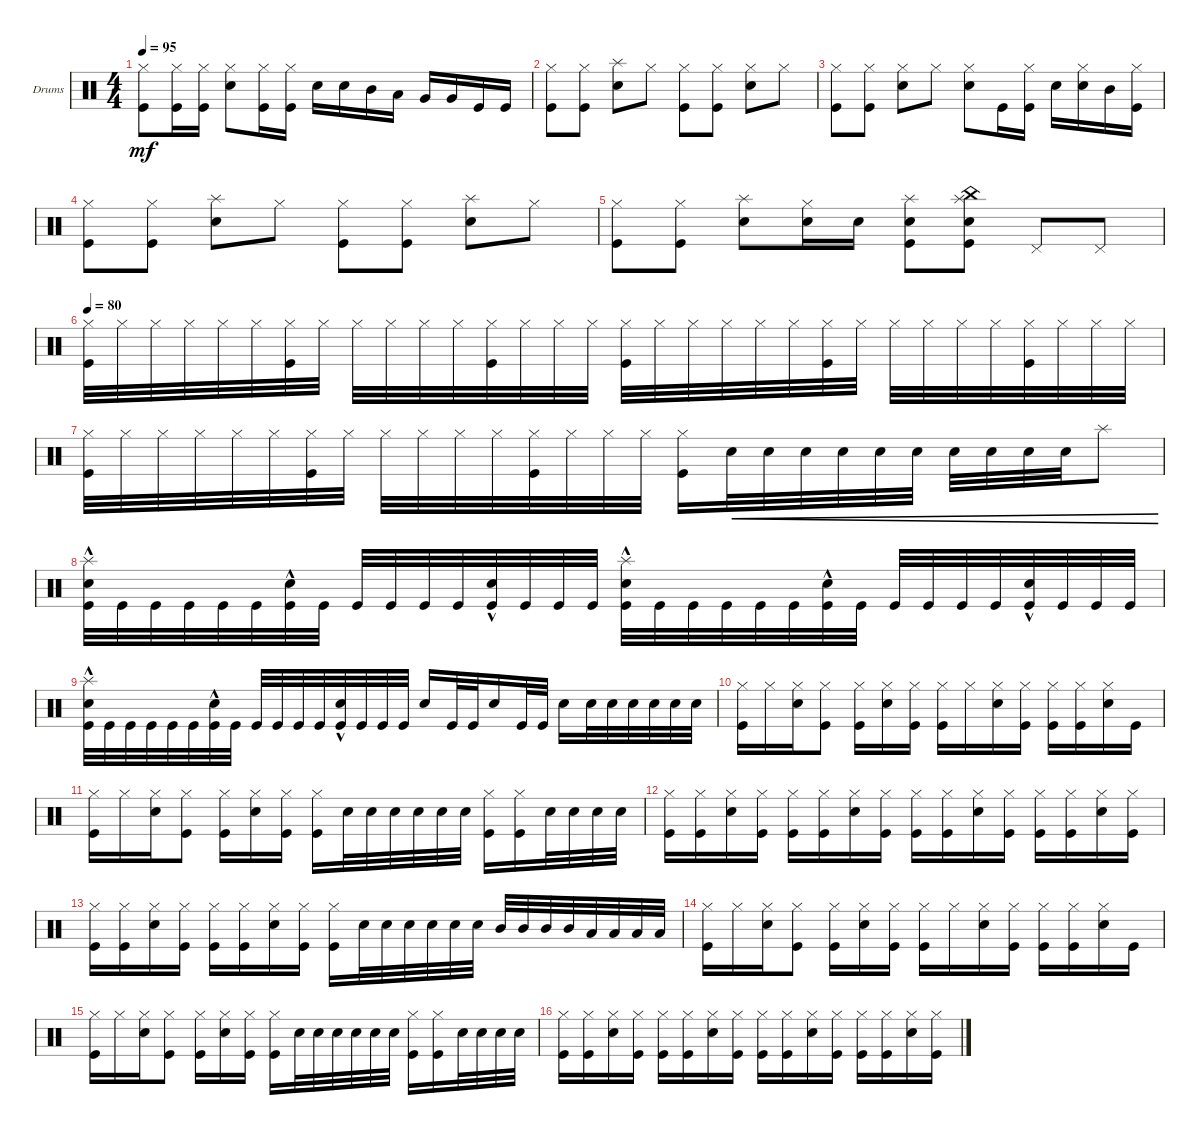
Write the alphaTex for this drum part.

\defaultSystemsLayout 4
\bracketExtendMode groupsimilarinstruments
\firstSystemTrackNameOrientation horizontal
\otherSystemsTrackNameOrientation horizontal
\track ("Drumkit" "Drums") {instrument percussion}
\staff {score}
\articulation defaults
\ts (4 4)
\tempo 95
\clef neutral
\ks c
("Kick (hit)" "Hi-Hat (closed)").8{dy mf} ("Kick (hit)" "Hi-Hat (closed)").16 ("Kick (hit)" "Hi-Hat (closed)").16 ("Snare (hit) 2" "Hi-Hat (closed)").8 ("Kick (hit)" "Hi-Hat (closed)").16 ("Kick (hit)" "Hi-Hat (closed)").16 "Snare (hit) 2".16 "Snare (hit) 2".16 "Mid Tom (hit)".16 "Low Tom (hit)".16 "Very Low Tom (hit)".16 "Very Low Tom (hit)".16 "Kick (hit)".16 "Kick (hit)".16 |
("Kick (hit)" "Hi-Hat (closed)").8 ("Hi-Hat (closed)" "Kick (hit)").8 ("Snare (hit) 2" "Splash (hit)").8 "Hi-Hat (closed)".8 ("Hi-Hat (closed)" "Kick (hit)").8 ("Hi-Hat (closed)" "Kick (hit)").8 ("Hi-Hat (closed)" "Snare (hit) 2").8 "Hi-Hat (closed)".8 |
("Hi-Hat (closed)" "Kick (hit)").8 ("Hi-Hat (closed)" "Kick (hit)").8 ("Snare (hit) 2" "Hi-Hat (closed)").8 "Hi-Hat (closed)".8 ("Snare (hit) 2" "Hi-Hat (closed)").8 "Kick (hit)".16 ("Kick (hit)" "Hi-Hat (closed)").16 "Snare (hit) 2".16 ("Snare (hit) 2" "Hi-Hat (closed)").16 "Mid Tom (hit)".16 ("Kick (hit)" "Hi-Hat (closed)").16 |
("Kick (hit)" "Hi-Hat (closed)").8 ("Hi-Hat (closed)" "Kick (hit)").8 ("Snare (hit) 2" "Splash (hit)").8 "Hi-Hat (closed)".8 ("Hi-Hat (closed)" "Kick (hit)").8 ("Hi-Hat (closed)" "Kick (hit)").8 ("Snare (hit) 2" "Splash (hit)").8 "Hi-Hat (closed)".8 |
("Hi-Hat (closed)" "Kick (hit)").8 ("Hi-Hat (closed)" "Kick (hit)").8 ("Snare (hit) 2" "Splash (hit)").8 ("Hi-Hat (closed)" "Snare (hit) 2").16 "Snare (hit) 2".16 ("Snare (hit) 2" "Splash (hit)" "Kick (hit)").8 ("Snare (hit) 2" "Splash (hit)" "China (hit)" "Kick (hit)").8 "Pedal Hi-Hat (hit)".8 "Pedal Hi-Hat (hit)".8 |
\tempo 80
("Hi-Hat (closed)" "Kick (hit)").32 "Hi-Hat (closed)".32 "Hi-Hat (closed)".32 "Hi-Hat (closed)".32 "Hi-Hat (closed)".32 "Hi-Hat (closed)".32 ("Hi-Hat (closed)" "Kick (hit)").32 "Hi-Hat (closed)".32 "Hi-Hat (closed)".32 "Hi-Hat (closed)".32 "Hi-Hat (closed)".32 "Hi-Hat (closed)".32 ("Hi-Hat (closed)" "Kick (hit)").32 "Hi-Hat (closed)".32 "Hi-Hat (closed)".32 "Hi-Hat (closed)".32 ("Hi-Hat (closed)" "Kick (hit)").32 "Hi-Hat (closed)".32 "Hi-Hat (closed)".32 "Hi-Hat (closed)".32 "Hi-Hat (closed)".32 "Hi-Hat (closed)".32 ("Hi-Hat (closed)" "Kick (hit)").32 "Hi-Hat (closed)".32 "Hi-Hat (closed)".32 "Hi-Hat (closed)".32 "Hi-Hat (closed)".32 "Hi-Hat (closed)".32 ("Hi-Hat (closed)" "Kick (hit)").32 "Hi-Hat (closed)".32 "Hi-Hat (closed)".32 "Hi-Hat (closed)".32 |
("Hi-Hat (closed)" "Kick (hit)").32 "Hi-Hat (closed)".32 "Hi-Hat (closed)".32 "Hi-Hat (closed)".32 "Hi-Hat (closed)".32 "Hi-Hat (closed)".32 ("Hi-Hat (closed)" "Kick (hit)").32 "Hi-Hat (closed)".32 "Hi-Hat (closed)".32 "Hi-Hat (closed)".32 "Hi-Hat (closed)".32 "Hi-Hat (closed)".32 ("Hi-Hat (closed)" "Kick (hit)").32 "Hi-Hat (closed)".32 "Hi-Hat (closed)".32 "Hi-Hat (closed)".32 ("Hi-Hat (closed)" "Kick (hit)").16 "Snare (hit) 2".32{cre} "Snare (hit) 2".32{cre} "Snare (hit) 2".32{cre} "Snare (hit) 2".32{cre} "Snare (hit) 2".32{cre} "Snare (hit) 2".32{cre} "Snare (hit) 2".32{cre} "Snare (hit) 2".32{cre} "Snare (hit) 2".32{cre} "Snare (hit) 2".32{cre} "Splash (hit)".8{cre} |
("Kick (hit)" "Splash (hit)" "Snare (hit) 2"{hac}).32 "Kick (hit)".32 "Kick (hit)".32 "Kick (hit)".32 "Kick (hit)".32 "Kick (hit)".32 ("Kick (hit)" "Snare (hit) 2"{hac}).32 "Kick (hit)".32 "Kick (hit)".32 "Kick (hit)".32 "Kick (hit)".32 "Kick (hit)".32 ("Kick (hit)" "Snare (hit) 2"{hac}).32 "Kick (hit)".32 "Kick (hit)".32 "Kick (hit)".32 ("Kick (hit)" "Snare (hit) 2"{hac} "Splash (hit)").32 "Kick (hit)".32 "Kick (hit)".32 "Kick (hit)".32 "Kick (hit)".32 "Kick (hit)".32 ("Kick (hit)" "Snare (hit) 2"{hac}).32 "Kick (hit)".32 "Kick (hit)".32 "Kick (hit)".32 "Kick (hit)".32 "Kick (hit)".32 ("Kick (hit)" "Snare (hit) 2"{hac}).32 "Kick (hit)".32 "Kick (hit)".32 "Kick (hit)".32 |
("Kick (hit)" "Splash (hit)" "Snare (hit) 2"{hac}).32 "Kick (hit)".32 "Kick (hit)".32 "Kick (hit)".32 "Kick (hit)".32 "Kick (hit)".32 ("Kick (hit)" "Snare (hit) 2"{hac}).32 "Kick (hit)".32 "Kick (hit)".32 "Kick (hit)".32 "Kick (hit)".32 "Kick (hit)".32 ("Kick (hit)" "Snare (hit) 2"{hac}).32 "Kick (hit)".32 "Kick (hit)".32 "Kick (hit)".32 "Snare (hit) 2".16 "Kick (hit)".32 "Kick (hit)".32 "Snare (hit) 2".16 "Kick (hit)".32 "Kick (hit)".32 "Snare (hit) 2".16 "Snare (hit) 2".32 "Snare (hit) 2".32 "Snare (hit) 2".32 "Snare (hit) 2".32 "Snare (hit) 2".32 "Snare (hit) 2".32 |
("Hi-Hat (closed)" "Kick (hit)").16 "Hi-Hat (closed)".16 ("Snare (hit) 2" "Hi-Hat (closed)").16 ("Kick (hit)" "Hi-Hat (closed)").8 ("Kick (hit)" "Hi-Hat (closed)").16 ("Snare (hit) 2" "Hi-Hat (closed)").16 ("Kick (hit)" "Hi-Hat (closed)").16 ("Hi-Hat (closed)" "Kick (hit)").16 "Hi-Hat (closed)".16 ("Snare (hit) 2" "Hi-Hat (closed)").16 ("Kick (hit)" "Hi-Hat (closed)").16 ("Kick (hit)" "Hi-Hat (closed)").16 ("Hi-Hat (closed)" "Kick (hit)").16 ("Hi-Hat (closed)" "Snare (hit) 2").16 "Kick (hit)".16 |
("Hi-Hat (closed)" "Kick (hit)").16 "Hi-Hat (closed)".16 ("Snare (hit) 2" "Hi-Hat (closed)").16 ("Kick (hit)" "Hi-Hat (closed)").8 ("Kick (hit)" "Hi-Hat (closed)").16 ("Snare (hit) 2" "Hi-Hat (closed)").16 ("Kick (hit)" "Hi-Hat (closed)").16 ("Hi-Hat (closed)" "Kick (hit)").16 "Snare (hit) 2".32 "Snare (hit) 2".32 "Snare (hit) 2".32 "Snare (hit) 2".32 "Snare (hit) 2".32 "Snare (hit) 2".32 ("Kick (hit)" "Hi-Hat (closed)").16 ("Kick (hit)" "Hi-Hat (closed)").16 "Snare (hit) 2".32 "Snare (hit) 2".32 "Snare (hit) 2".32 "Snare (hit) 2".32 |
("Kick (hit)" "Hi-Hat (closed)").16 ("Kick (hit)" "Hi-Hat (closed)").16 ("Snare (hit) 2" "Hi-Hat (closed)").16 ("Kick (hit)" "Hi-Hat (closed)").16 ("Kick (hit)" "Hi-Hat (closed)").16 ("Kick (hit)" "Hi-Hat (closed)").16 ("Snare (hit) 2" "Hi-Hat (closed)").16 ("Kick (hit)" "Hi-Hat (closed)").16 ("Kick (hit)" "Hi-Hat (closed)").16 ("Kick (hit)" "Hi-Hat (closed)").16 ("Snare (hit) 2" "Hi-Hat (closed)").16 ("Kick (hit)" "Hi-Hat (closed)").16 ("Kick (hit)" "Hi-Hat (closed)").16 ("Kick (hit)" "Hi-Hat (closed)").16 ("Snare (hit) 2" "Hi-Hat (closed)").16 ("Kick (hit)" "Hi-Hat (closed)").16 |
("Kick (hit)" "Hi-Hat (closed)").16 ("Kick (hit)" "Hi-Hat (closed)").16 ("Snare (hit) 2" "Hi-Hat (closed)").16 ("Kick (hit)" "Hi-Hat (closed)").16 ("Kick (hit)" "Hi-Hat (closed)").16 ("Kick (hit)" "Hi-Hat (closed)").16 ("Snare (hit) 2" "Hi-Hat (closed)").16 ("Kick (hit)" "Hi-Hat (closed)").16 ("Kick (hit)" "Hi-Hat (closed)").16 "Snare (hit) 2".32 "Snare (hit) 2".32 "Snare (hit) 2".32 "Snare (hit) 2".32 "Snare (hit) 2".32 "Snare (hit) 2".32 "Mid Tom (hit)".32 "Mid Tom (hit)".32 "Mid Tom (hit)".32 "Mid Tom (hit)".32 "Low Tom (hit)".32 "Low Tom (hit)".32 "Low Tom (hit)".32 "Low Tom (hit)".32 |
("Hi-Hat (closed)" "Kick (hit)").16 "Hi-Hat (closed)".16 ("Snare (hit) 2" "Hi-Hat (closed)").16 ("Kick (hit)" "Hi-Hat (closed)").8 ("Kick (hit)" "Hi-Hat (closed)").16 ("Snare (hit) 2" "Hi-Hat (closed)").16 ("Kick (hit)" "Hi-Hat (closed)").16 ("Hi-Hat (closed)" "Kick (hit)").16 "Hi-Hat (closed)".16 ("Snare (hit) 2" "Hi-Hat (closed)").16 ("Kick (hit)" "Hi-Hat (closed)").16 ("Kick (hit)" "Hi-Hat (closed)").16 ("Hi-Hat (closed)" "Kick (hit)").16 ("Hi-Hat (closed)" "Snare (hit) 2").16 "Kick (hit)".16 |
("Hi-Hat (closed)" "Kick (hit)").16 "Hi-Hat (closed)".16 ("Snare (hit) 2" "Hi-Hat (closed)").16 ("Kick (hit)" "Hi-Hat (closed)").8 ("Kick (hit)" "Hi-Hat (closed)").16 ("Snare (hit) 2" "Hi-Hat (closed)").16 ("Kick (hit)" "Hi-Hat (closed)").16 ("Hi-Hat (closed)" "Kick (hit)").16 "Snare (hit) 2".32 "Snare (hit) 2".32 "Snare (hit) 2".32 "Snare (hit) 2".32 "Snare (hit) 2".32 "Snare (hit) 2".32 ("Kick (hit)" "Hi-Hat (closed)").16 ("Kick (hit)" "Hi-Hat (closed)").16 "Snare (hit) 2".32 "Snare (hit) 2".32 "Snare (hit) 2".32 "Snare (hit) 2".32 |
("Kick (hit)" "Hi-Hat (closed)").16 ("Kick (hit)" "Hi-Hat (closed)").16 ("Snare (hit) 2" "Hi-Hat (closed)").16 ("Kick (hit)" "Hi-Hat (closed)").16 ("Kick (hit)" "Hi-Hat (closed)").16 ("Kick (hit)" "Hi-Hat (closed)").16 ("Snare (hit) 2" "Hi-Hat (closed)").16 ("Kick (hit)" "Hi-Hat (closed)").16 ("Kick (hit)" "Hi-Hat (closed)").16 ("Kick (hit)" "Hi-Hat (closed)").16 ("Snare (hit) 2" "Hi-Hat (closed)").16 ("Kick (hit)" "Hi-Hat (closed)").16 ("Kick (hit)" "Hi-Hat (closed)").16 ("Kick (hit)" "Hi-Hat (closed)").16 ("Snare (hit) 2" "Hi-Hat (closed)").16 ("Kick (hit)" "Hi-Hat (closed)").16
